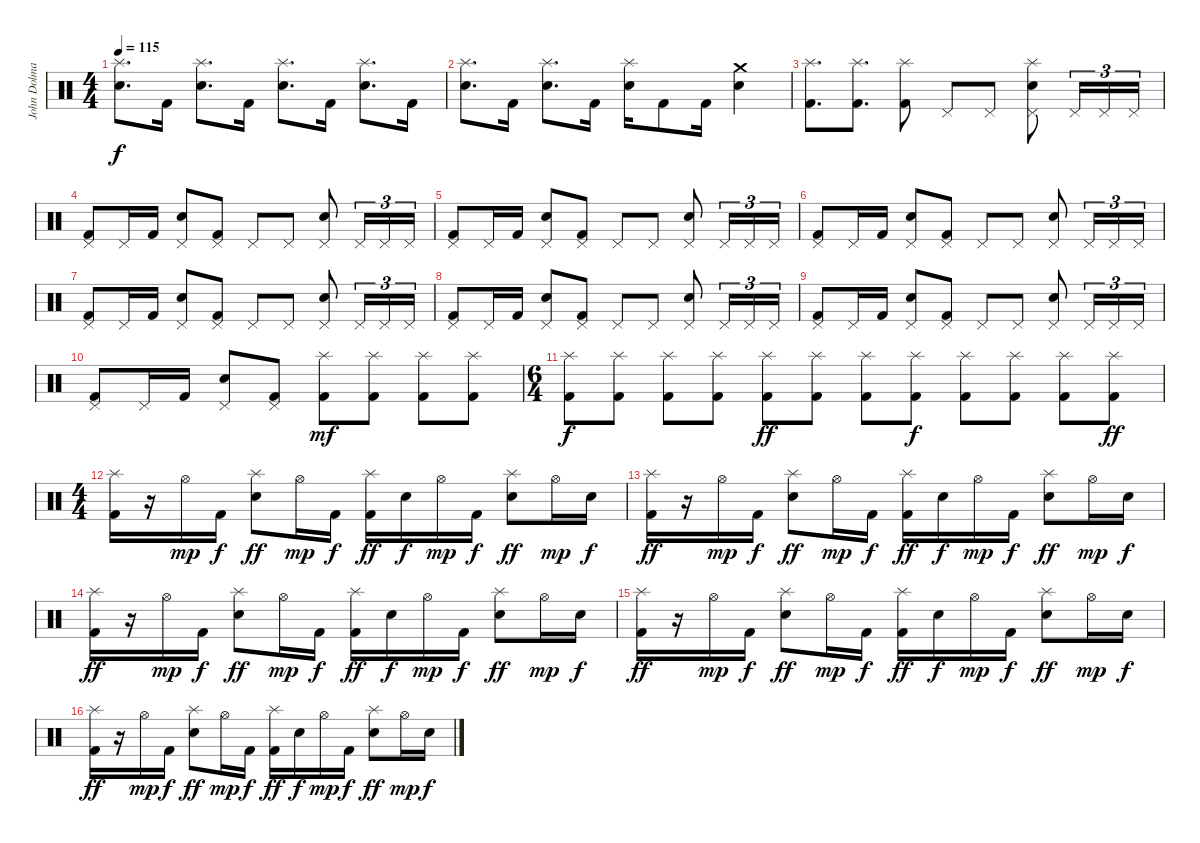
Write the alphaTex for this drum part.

\track ("John Dolmayan" "John Dolma") {instrument percussion}
\staff {score}
\articulation defaults
\ts (4 4)
\tempo 115
\clef neutral
\ks c
("Splash (hit)" "Electric Snare (hit)").8{d dy f} "Kick (hit) 2".16 ("Splash (hit)" "Electric Snare (hit)").8{d} "Kick (hit) 2".16 ("Splash (hit)" "Electric Snare (hit)").8{d} "Kick (hit) 2".16 ("Splash (hit)" "Electric Snare (hit)").8{d} "Kick (hit) 2".16 |
("Splash (hit)" "Electric Snare (hit)").8{d} "Kick (hit) 2".16 ("Splash (hit)" "Electric Snare (hit)").8{d} "Kick (hit) 2".16 ("Splash (hit)" "Electric Snare (hit)").16 "Kick (hit) 2".8 "Kick (hit) 2".16 ("Crash medium (hit)" "Electric Snare (hit)").4 |
("Splash (hit)" "Kick (hit) 2").8{d} ("Splash (hit)" "Kick (hit) 2").8{d} ("Splash (hit)" "Kick (hit) 2").8 "Pedal Hi-Hat (hit)".8 "Pedal Hi-Hat (hit)".8 ("Pedal Hi-Hat (hit)" "Splash (hit)" "Electric Snare (hit)").8 "Pedal Hi-Hat (hit)".16{tu (3 2)} "Pedal Hi-Hat (hit)".16{tu (3 2)} "Pedal Hi-Hat (hit)".16{tu (3 2)} |
("Pedal Hi-Hat (hit)" "Kick (hit) 2").8 "Pedal Hi-Hat (hit)".16 "Kick (hit) 2".16 ("Pedal Hi-Hat (hit)" "Electric Snare (hit)").8 ("Pedal Hi-Hat (hit)" "Kick (hit) 2").8 "Pedal Hi-Hat (hit)".8 "Pedal Hi-Hat (hit)".8 ("Pedal Hi-Hat (hit)" "Electric Snare (hit)").8 "Pedal Hi-Hat (hit)".16{tu (3 2)} "Pedal Hi-Hat (hit)".16{tu (3 2)} "Pedal Hi-Hat (hit)".16{tu (3 2)} |
("Pedal Hi-Hat (hit)" "Kick (hit) 2").8 "Pedal Hi-Hat (hit)".16 "Kick (hit) 2".16 ("Pedal Hi-Hat (hit)" "Electric Snare (hit)").8 ("Pedal Hi-Hat (hit)" "Kick (hit) 2").8 "Pedal Hi-Hat (hit)".8 "Pedal Hi-Hat (hit)".8 ("Pedal Hi-Hat (hit)" "Electric Snare (hit)").8 "Pedal Hi-Hat (hit)".16{tu (3 2)} "Pedal Hi-Hat (hit)".16{tu (3 2)} "Pedal Hi-Hat (hit)".16{tu (3 2)} |
("Pedal Hi-Hat (hit)" "Kick (hit) 2").8 "Pedal Hi-Hat (hit)".16 "Kick (hit) 2".16 ("Pedal Hi-Hat (hit)" "Electric Snare (hit)").8 ("Pedal Hi-Hat (hit)" "Kick (hit) 2").8 "Pedal Hi-Hat (hit)".8 "Pedal Hi-Hat (hit)".8 ("Pedal Hi-Hat (hit)" "Electric Snare (hit)").8 "Pedal Hi-Hat (hit)".16{tu (3 2)} "Pedal Hi-Hat (hit)".16{tu (3 2)} "Pedal Hi-Hat (hit)".16{tu (3 2)} |
("Pedal Hi-Hat (hit)" "Kick (hit) 2").8 "Pedal Hi-Hat (hit)".16 "Kick (hit) 2".16 ("Pedal Hi-Hat (hit)" "Electric Snare (hit)").8 ("Pedal Hi-Hat (hit)" "Kick (hit) 2").8 "Pedal Hi-Hat (hit)".8 "Pedal Hi-Hat (hit)".8 ("Pedal Hi-Hat (hit)" "Electric Snare (hit)").8 "Pedal Hi-Hat (hit)".16{tu (3 2)} "Pedal Hi-Hat (hit)".16{tu (3 2)} "Pedal Hi-Hat (hit)".16{tu (3 2)} |
("Pedal Hi-Hat (hit)" "Kick (hit) 2").8 "Pedal Hi-Hat (hit)".16 "Kick (hit) 2".16 ("Pedal Hi-Hat (hit)" "Electric Snare (hit)").8 ("Pedal Hi-Hat (hit)" "Kick (hit) 2").8 "Pedal Hi-Hat (hit)".8 "Pedal Hi-Hat (hit)".8 ("Pedal Hi-Hat (hit)" "Electric Snare (hit)").8 "Pedal Hi-Hat (hit)".16{tu (3 2)} "Pedal Hi-Hat (hit)".16{tu (3 2)} "Pedal Hi-Hat (hit)".16{tu (3 2)} |
("Pedal Hi-Hat (hit)" "Kick (hit) 2").8 "Pedal Hi-Hat (hit)".16 "Kick (hit) 2".16 ("Pedal Hi-Hat (hit)" "Electric Snare (hit)").8 ("Pedal Hi-Hat (hit)" "Kick (hit) 2").8 "Pedal Hi-Hat (hit)".8 "Pedal Hi-Hat (hit)".8 ("Pedal Hi-Hat (hit)" "Electric Snare (hit)").8 "Pedal Hi-Hat (hit)".16{tu (3 2)} "Pedal Hi-Hat (hit)".16{tu (3 2)} "Pedal Hi-Hat (hit)".16{tu (3 2)} |
("Pedal Hi-Hat (hit)" "Kick (hit) 2").8 "Pedal Hi-Hat (hit)".16 "Kick (hit) 2".16 ("Pedal Hi-Hat (hit)" "Electric Snare (hit)").8 ("Pedal Hi-Hat (hit)" "Kick (hit) 2").8 ("Splash (hit)" "Kick (hit) 2").8{dy mf} ("Splash (hit)" "Kick (hit) 2").8 ("Splash (hit)" "Kick (hit) 2").8 ("Splash (hit)" "Kick (hit) 2").8 |
\ts (6 4)
("Splash (hit)" "Kick (hit) 2").8{dy f} ("Splash (hit)" "Kick (hit) 2").8 ("Splash (hit)" "Kick (hit) 2").8 ("Splash (hit)" "Kick (hit) 2").8 ("Splash (hit)" "Kick (hit) 2").8{dy ff} ("Splash (hit)" "Kick (hit) 2").8 ("Splash (hit)" "Kick (hit) 2").8 ("Splash (hit)" "Kick (hit) 2").8{dy f} ("Splash (hit)" "Kick (hit) 2").8 ("Splash (hit)" "Kick (hit) 2").8 ("Splash (hit)" "Kick (hit) 2").8 ("Splash (hit)" "Kick (hit) 2").8{dy ff} |
\ts (4 4)
("Splash (hit)" "Kick (hit) 2").16 r.16 "Hi-Hat (open)".16{dy mp} "Kick (hit) 2".16{dy f} ("Splash (hit)" "Electric Snare (hit)").8{dy ff} "Hi-Hat (open)".16{dy mp} "Kick (hit) 2".16{dy f} ("Splash (hit)" "Kick (hit) 2").16{dy ff} "Electric Snare (hit)".16{dy f} "Hi-Hat (open)".16{dy mp} "Kick (hit) 2".16{dy f} ("Splash (hit)" "Electric Snare (hit)").8{dy ff} "Hi-Hat (open)".16{dy mp} "Electric Snare (hit)".16{dy f} |
("Splash (hit)" "Kick (hit) 2").16{dy ff} r.16 "Hi-Hat (open)".16{dy mp} "Kick (hit) 2".16{dy f} ("Splash (hit)" "Electric Snare (hit)").8{dy ff} "Hi-Hat (open)".16{dy mp} "Kick (hit) 2".16{dy f} ("Splash (hit)" "Kick (hit) 2").16{dy ff} "Electric Snare (hit)".16{dy f} "Hi-Hat (open)".16{dy mp} "Kick (hit) 2".16{dy f} ("Splash (hit)" "Electric Snare (hit)").8{dy ff} "Hi-Hat (open)".16{dy mp} "Electric Snare (hit)".16{dy f} |
("Splash (hit)" "Kick (hit) 2").16{dy ff} r.16 "Hi-Hat (open)".16{dy mp} "Kick (hit) 2".16{dy f} ("Splash (hit)" "Electric Snare (hit)").8{dy ff} "Hi-Hat (open)".16{dy mp} "Kick (hit) 2".16{dy f} ("Splash (hit)" "Kick (hit) 2").16{dy ff} "Electric Snare (hit)".16{dy f} "Hi-Hat (open)".16{dy mp} "Kick (hit) 2".16{dy f} ("Splash (hit)" "Electric Snare (hit)").8{dy ff} "Hi-Hat (open)".16{dy mp} "Electric Snare (hit)".16{dy f} |
("Splash (hit)" "Kick (hit) 2").16{dy ff} r.16 "Hi-Hat (open)".16{dy mp} "Kick (hit) 2".16{dy f} ("Splash (hit)" "Electric Snare (hit)").8{dy ff} "Hi-Hat (open)".16{dy mp} "Kick (hit) 2".16{dy f} ("Splash (hit)" "Kick (hit) 2").16{dy ff} "Electric Snare (hit)".16{dy f} "Hi-Hat (open)".16{dy mp} "Kick (hit) 2".16{dy f} ("Splash (hit)" "Electric Snare (hit)").8{dy ff} "Hi-Hat (open)".16{dy mp} "Electric Snare (hit)".16{dy f} |
("Splash (hit)" "Kick (hit) 2").16{dy ff} r.16 "Hi-Hat (open)".16{dy mp} "Kick (hit) 2".16{dy f} ("Splash (hit)" "Electric Snare (hit)").8{dy ff} "Hi-Hat (open)".16{dy mp} "Kick (hit) 2".16{dy f} ("Splash (hit)" "Kick (hit) 2").16{dy ff} "Electric Snare (hit)".16{dy f} "Hi-Hat (open)".16{dy mp} "Kick (hit) 2".16{dy f} ("Splash (hit)" "Electric Snare (hit)").8{dy ff} "Hi-Hat (open)".16{dy mp} "Electric Snare (hit)".16{dy f}
